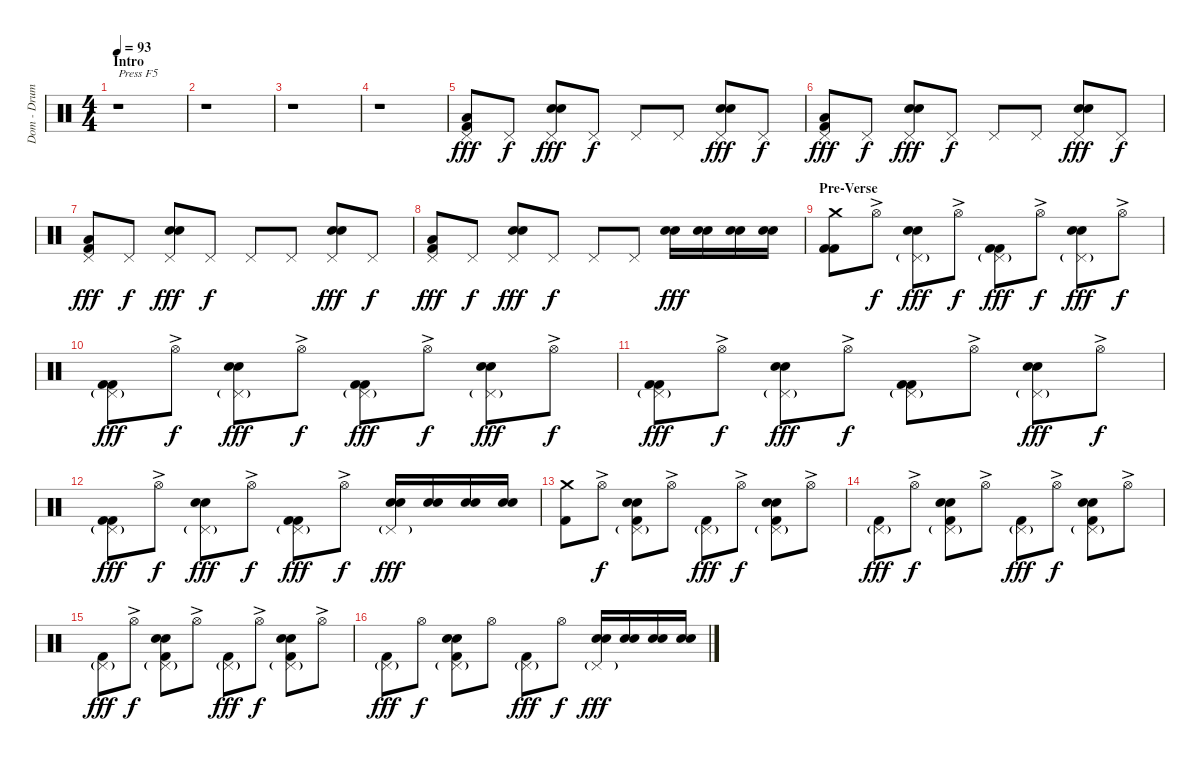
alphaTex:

\track ("Dom - Drums" "Dom - Drum") {instrument percussion}
\staff {score}
\articulation defaults
\ts (4 4)
\section ("" "Intro")
\tempo 93
\clef neutral
\ks c
r.1{txt "Press F5" dy fff} |
r.1 |
r.1 |
r.1 |
("Pedal Hi-Hat (hit)" "Low Floor Tom (hit)" "Kick (hit) 2").8 "Pedal Hi-Hat (hit)".8{dy f} ("Pedal Hi-Hat (hit)" "Snare (hit) 2" "Electric Snare (hit)").8{dy fff} "Pedal Hi-Hat (hit)".8{dy f} "Pedal Hi-Hat (hit)".8 "Pedal Hi-Hat (hit)".8 ("Pedal Hi-Hat (hit)" "Snare (hit) 2" "Electric Snare (hit)").8{dy fff} "Pedal Hi-Hat (hit)".8{dy f} |
("Pedal Hi-Hat (hit)" "Low Floor Tom (hit)" "Kick (hit) 2").8{dy fff} "Pedal Hi-Hat (hit)".8{dy f} ("Pedal Hi-Hat (hit)" "Snare (hit) 2" "Electric Snare (hit)").8{dy fff} "Pedal Hi-Hat (hit)".8{dy f} "Pedal Hi-Hat (hit)".8 "Pedal Hi-Hat (hit)".8 ("Pedal Hi-Hat (hit)" "Snare (hit) 2" "Electric Snare (hit)").8{dy fff} "Pedal Hi-Hat (hit)".8{dy f} |
("Pedal Hi-Hat (hit)" "Low Floor Tom (hit)" "Kick (hit) 2").8{dy fff} "Pedal Hi-Hat (hit)".8{dy f} ("Pedal Hi-Hat (hit)" "Snare (hit) 2" "Electric Snare (hit)").8{dy fff} "Pedal Hi-Hat (hit)".8{dy f} "Pedal Hi-Hat (hit)".8 "Pedal Hi-Hat (hit)".8 ("Pedal Hi-Hat (hit)" "Snare (hit) 2" "Electric Snare (hit)").8{dy fff} "Pedal Hi-Hat (hit)".8{dy f} |
("Pedal Hi-Hat (hit)" "Low Floor Tom (hit)" "Kick (hit) 2").8{dy fff} "Pedal Hi-Hat (hit)".8{dy f} ("Pedal Hi-Hat (hit)" "Snare (hit) 2" "Electric Snare (hit)").8{dy fff} "Pedal Hi-Hat (hit)".8{dy f} "Pedal Hi-Hat (hit)".8 "Pedal Hi-Hat (hit)".8 ("Snare (hit) 2" "Electric Snare (hit)").16{dy fff} ("Snare (hit) 2" "Electric Snare (hit)").16 ("Snare (hit) 2" "Electric Snare (hit)").16 ("Snare (hit) 2" "Electric Snare (hit)").16 |
\section ("" "Pre-Verse")
("Crash medium (hit)" "Kick (hit) 2" "Kick (hit) 2").8 "Hi-Hat (open)"{ac}.8{dy f} ("Pedal Hi-Hat (hit)"{g} "Snare (hit) 2" "Electric Snare (hit)").8{dy fff} "Hi-Hat (open)"{ac}.8{dy f} ("Pedal Hi-Hat (hit)"{g} "Kick (hit) 2" "Kick (hit) 2").8{dy fff} "Hi-Hat (open)"{ac}.8{dy f} ("Pedal Hi-Hat (hit)"{g} "Snare (hit) 2" "Electric Snare (hit)").8{dy fff} "Hi-Hat (open)"{ac}.8{dy f} |
("Pedal Hi-Hat (hit)"{g} "Kick (hit) 2" "Kick (hit) 2").8{dy fff} "Hi-Hat (open)"{ac}.8{dy f} ("Pedal Hi-Hat (hit)"{g} "Snare (hit) 2" "Electric Snare (hit)").8{dy fff} "Hi-Hat (open)"{ac}.8{dy f} ("Pedal Hi-Hat (hit)"{g} "Kick (hit) 2" "Kick (hit) 2").8{dy fff} "Hi-Hat (open)"{ac}.8{dy f} ("Pedal Hi-Hat (hit)"{g} "Snare (hit) 2" "Electric Snare (hit)").8{dy fff} "Hi-Hat (open)"{ac}.8{dy f} |
("Pedal Hi-Hat (hit)"{g} "Kick (hit) 2" "Kick (hit) 2").8{dy fff} "Hi-Hat (open)"{ac}.8{dy f} ("Pedal Hi-Hat (hit)"{g} "Snare (hit) 2" "Electric Snare (hit)").8{dy fff} "Hi-Hat (open)"{ac}.8{dy f} ("Pedal Hi-Hat (hit)"{g} "Kick (hit) 2" "Kick (hit) 2").8 "Hi-Hat (open)"{ac}.8 ("Pedal Hi-Hat (hit)"{g} "Snare (hit) 2" "Electric Snare (hit)").8{dy fff} "Hi-Hat (open)"{ac}.8{dy f} |
("Pedal Hi-Hat (hit)"{g} "Kick (hit) 2" "Kick (hit) 2").8{dy fff} "Hi-Hat (open)"{ac}.8{dy f} ("Pedal Hi-Hat (hit)"{g} "Snare (hit) 2" "Electric Snare (hit)").8{dy fff} "Hi-Hat (open)"{ac}.8{dy f} ("Pedal Hi-Hat (hit)"{g} "Kick (hit) 2" "Kick (hit) 2").8{dy fff} "Hi-Hat (open)"{ac}.8{dy f} ("Pedal Hi-Hat (hit)"{g} "Snare (hit) 2" "Electric Snare (hit)").16{dy fff} ("Snare (hit) 2" "Electric Snare (hit)").16 ("Snare (hit) 2" "Electric Snare (hit)").16 ("Snare (hit) 2" "Electric Snare (hit)").16 |
("Crash medium (hit)" "Kick (hit) 2").8 "Hi-Hat (open)"{ac}.8{dy f} ("Pedal Hi-Hat (hit)"{g} "Snare (hit) 2" "Electric Snare (hit)" "Kick (hit) 2").8 "Hi-Hat (open)"{ac}.8 ("Pedal Hi-Hat (hit)"{g} "Kick (hit) 2").8{dy fff} "Hi-Hat (open)"{ac}.8{dy f} ("Pedal Hi-Hat (hit)"{g} "Snare (hit) 2" "Electric Snare (hit)" "Kick (hit) 2").8 "Hi-Hat (open)"{ac}.8 |
("Pedal Hi-Hat (hit)"{g} "Kick (hit) 2").8{dy fff} "Hi-Hat (open)"{ac}.8{dy f} ("Pedal Hi-Hat (hit)"{g} "Snare (hit) 2" "Electric Snare (hit)" "Kick (hit) 2").8 "Hi-Hat (open)"{ac}.8 ("Pedal Hi-Hat (hit)"{g} "Kick (hit) 2").8{dy fff} "Hi-Hat (open)"{ac}.8{dy f} ("Pedal Hi-Hat (hit)"{g} "Snare (hit) 2" "Electric Snare (hit)" "Kick (hit) 2").8 "Hi-Hat (open)"{ac}.8 |
("Pedal Hi-Hat (hit)"{g} "Kick (hit) 2").8{dy fff} "Hi-Hat (open)"{ac}.8{dy f} ("Pedal Hi-Hat (hit)"{g} "Snare (hit) 2" "Electric Snare (hit)" "Kick (hit) 2").8 "Hi-Hat (open)"{ac}.8 ("Pedal Hi-Hat (hit)"{g} "Kick (hit) 2").8{dy fff} "Hi-Hat (open)"{ac}.8{dy f} ("Pedal Hi-Hat (hit)"{g} "Snare (hit) 2" "Electric Snare (hit)" "Kick (hit) 2").8 "Hi-Hat (open)"{ac}.8 |
("Pedal Hi-Hat (hit)"{g} "Kick (hit) 2").8{dy fff} "Hi-Hat (open)".8{dy f} ("Pedal Hi-Hat (hit)"{g} "Snare (hit) 2" "Electric Snare (hit)" "Kick (hit) 2").8 "Hi-Hat (open)".8 ("Pedal Hi-Hat (hit)"{g} "Kick (hit) 2").8{dy fff} "Hi-Hat (open)".8{dy f} ("Pedal Hi-Hat (hit)"{g} "Snare (hit) 2" "Electric Snare (hit)").16{dy fff} ("Snare (hit) 2" "Electric Snare (hit)").16 ("Snare (hit) 2" "Electric Snare (hit)").16 ("Snare (hit) 2" "Electric Snare (hit)").16
